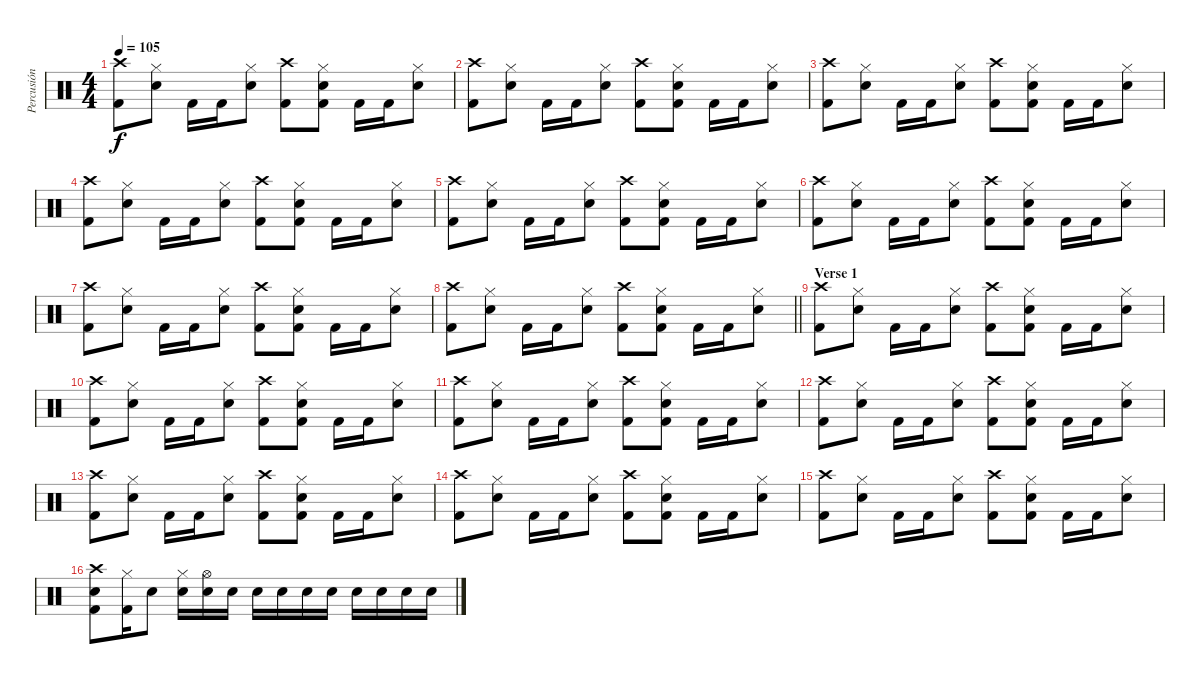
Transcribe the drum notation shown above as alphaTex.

\track ("Percusión" "Percusión") {instrument percussion}
\staff {score}
\articulation defaults
\ts (4 4)
\tempo 105
\clef neutral
\ks c
("Crash high (hit)" "Kick (hit) 2").8{dy f} ("Hi-Hat (closed)" "Snare (hit) 2").8 "Kick (hit) 2".16 "Kick (hit) 2".16 ("Hi-Hat (closed)" "Snare (hit) 2").8 ("Crash high (hit)" "Kick (hit) 2").8 ("Hi-Hat (closed)" "Snare (hit) 2" "Kick (hit) 2").8 "Kick (hit) 2".16 "Kick (hit) 2".16 ("Hi-Hat (closed)" "Snare (hit) 2").8 |
("Crash high (hit)" "Kick (hit) 2").8 ("Hi-Hat (closed)" "Snare (hit) 2").8 "Kick (hit) 2".16 "Kick (hit) 2".16 ("Hi-Hat (closed)" "Snare (hit) 2").8 ("Crash high (hit)" "Kick (hit) 2").8 ("Hi-Hat (closed)" "Snare (hit) 2" "Kick (hit) 2").8 "Kick (hit) 2".16 "Kick (hit) 2".16 ("Hi-Hat (closed)" "Snare (hit) 2").8 |
("Crash high (hit)" "Kick (hit) 2").8 ("Hi-Hat (closed)" "Snare (hit) 2").8 "Kick (hit) 2".16 "Kick (hit) 2".16 ("Hi-Hat (closed)" "Snare (hit) 2").8 ("Crash high (hit)" "Kick (hit) 2").8 ("Hi-Hat (closed)" "Snare (hit) 2" "Kick (hit) 2").8 "Kick (hit) 2".16 "Kick (hit) 2".16 ("Hi-Hat (closed)" "Snare (hit) 2").8 |
("Crash high (hit)" "Kick (hit) 2").8 ("Hi-Hat (closed)" "Snare (hit) 2").8 "Kick (hit) 2".16 "Kick (hit) 2".16 ("Hi-Hat (closed)" "Snare (hit) 2").8 ("Crash high (hit)" "Kick (hit) 2").8 ("Hi-Hat (closed)" "Snare (hit) 2" "Kick (hit) 2").8 "Kick (hit) 2".16 "Kick (hit) 2".16 ("Hi-Hat (closed)" "Snare (hit) 2").8 |
("Crash high (hit)" "Kick (hit) 2").8 ("Hi-Hat (closed)" "Snare (hit) 2").8 "Kick (hit) 2".16 "Kick (hit) 2".16 ("Hi-Hat (closed)" "Snare (hit) 2").8 ("Crash high (hit)" "Kick (hit) 2").8 ("Hi-Hat (closed)" "Snare (hit) 2" "Kick (hit) 2").8 "Kick (hit) 2".16 "Kick (hit) 2".16 ("Hi-Hat (closed)" "Snare (hit) 2").8 |
("Crash high (hit)" "Kick (hit) 2").8 ("Hi-Hat (closed)" "Snare (hit) 2").8 "Kick (hit) 2".16 "Kick (hit) 2".16 ("Hi-Hat (closed)" "Snare (hit) 2").8 ("Crash high (hit)" "Kick (hit) 2").8 ("Hi-Hat (closed)" "Snare (hit) 2" "Kick (hit) 2").8 "Kick (hit) 2".16 "Kick (hit) 2".16 ("Hi-Hat (closed)" "Snare (hit) 2").8 |
("Crash high (hit)" "Kick (hit) 2").8 ("Hi-Hat (closed)" "Snare (hit) 2").8 "Kick (hit) 2".16 "Kick (hit) 2".16 ("Hi-Hat (closed)" "Snare (hit) 2").8 ("Crash high (hit)" "Kick (hit) 2").8 ("Hi-Hat (closed)" "Snare (hit) 2" "Kick (hit) 2").8 "Kick (hit) 2".16 "Kick (hit) 2".16 ("Hi-Hat (closed)" "Snare (hit) 2").8 |
\barLineRight lightlight
("Crash high (hit)" "Kick (hit) 2").8 ("Hi-Hat (closed)" "Snare (hit) 2").8 "Kick (hit) 2".16 "Kick (hit) 2".16 ("Hi-Hat (closed)" "Snare (hit) 2").8 ("Crash high (hit)" "Kick (hit) 2").8 ("Hi-Hat (closed)" "Snare (hit) 2" "Kick (hit) 2").8 "Kick (hit) 2".16 "Kick (hit) 2".16 ("Hi-Hat (closed)" "Snare (hit) 2").8 |
\section ("" "Verse 1")
("Crash high (hit)" "Kick (hit) 2").8 ("Hi-Hat (closed)" "Snare (hit) 2").8 "Kick (hit) 2".16 "Kick (hit) 2".16 ("Hi-Hat (closed)" "Snare (hit) 2").8 ("Crash high (hit)" "Kick (hit) 2").8 ("Hi-Hat (closed)" "Snare (hit) 2" "Kick (hit) 2").8 "Kick (hit) 2".16 "Kick (hit) 2".16 ("Hi-Hat (closed)" "Snare (hit) 2").8 |
("Crash high (hit)" "Kick (hit) 2").8 ("Hi-Hat (closed)" "Snare (hit) 2").8 "Kick (hit) 2".16 "Kick (hit) 2".16 ("Hi-Hat (closed)" "Snare (hit) 2").8 ("Crash high (hit)" "Kick (hit) 2").8 ("Hi-Hat (closed)" "Snare (hit) 2" "Kick (hit) 2").8 "Kick (hit) 2".16 "Kick (hit) 2".16 ("Hi-Hat (closed)" "Snare (hit) 2").8 |
("Crash high (hit)" "Kick (hit) 2").8 ("Hi-Hat (closed)" "Snare (hit) 2").8 "Kick (hit) 2".16 "Kick (hit) 2".16 ("Hi-Hat (closed)" "Snare (hit) 2").8 ("Crash high (hit)" "Kick (hit) 2").8 ("Hi-Hat (closed)" "Snare (hit) 2" "Kick (hit) 2").8 "Kick (hit) 2".16 "Kick (hit) 2".16 ("Hi-Hat (closed)" "Snare (hit) 2").8 |
("Crash high (hit)" "Kick (hit) 2").8 ("Hi-Hat (closed)" "Snare (hit) 2").8 "Kick (hit) 2".16 "Kick (hit) 2".16 ("Hi-Hat (closed)" "Snare (hit) 2").8 ("Crash high (hit)" "Kick (hit) 2").8 ("Hi-Hat (closed)" "Snare (hit) 2" "Kick (hit) 2").8 "Kick (hit) 2".16 "Kick (hit) 2".16 ("Hi-Hat (closed)" "Snare (hit) 2").8 |
("Crash high (hit)" "Kick (hit) 2").8 ("Hi-Hat (closed)" "Snare (hit) 2").8 "Kick (hit) 2".16 "Kick (hit) 2".16 ("Hi-Hat (closed)" "Snare (hit) 2").8 ("Crash high (hit)" "Kick (hit) 2").8 ("Hi-Hat (closed)" "Snare (hit) 2" "Kick (hit) 2").8 "Kick (hit) 2".16 "Kick (hit) 2".16 ("Hi-Hat (closed)" "Snare (hit) 2").8 |
("Crash high (hit)" "Kick (hit) 2").8 ("Hi-Hat (closed)" "Snare (hit) 2").8 "Kick (hit) 2".16 "Kick (hit) 2".16 ("Hi-Hat (closed)" "Snare (hit) 2").8 ("Crash high (hit)" "Kick (hit) 2").8 ("Hi-Hat (closed)" "Snare (hit) 2" "Kick (hit) 2").8 "Kick (hit) 2".16 "Kick (hit) 2".16 ("Hi-Hat (closed)" "Snare (hit) 2").8 |
("Crash high (hit)" "Kick (hit) 2").8 ("Hi-Hat (closed)" "Snare (hit) 2").8 "Kick (hit) 2".16 "Kick (hit) 2".16 ("Hi-Hat (closed)" "Snare (hit) 2").8 ("Crash high (hit)" "Kick (hit) 2").8 ("Hi-Hat (closed)" "Snare (hit) 2" "Kick (hit) 2").8 "Kick (hit) 2".16 "Kick (hit) 2".16 ("Hi-Hat (closed)" "Snare (hit) 2").8 |
("Crash high (hit)" "Snare (hit) 2" "Kick (hit) 2").8 ("Hi-Hat (closed)" "Kick (hit) 2").16 "Snare (hit) 2".8 ("Hi-Hat (closed)" "Snare (hit) 2").16 ("Hi-Hat (open)" "Snare (hit) 2").16 "Snare (hit) 2".16 "Snare (hit) 2".16 "Snare (hit) 2".16 "Snare (hit) 2".16 "Snare (hit) 2".16 "Snare (hit) 2".16 "Snare (hit) 2".16 "Snare (hit) 2".16 "Snare (hit) 2".16
